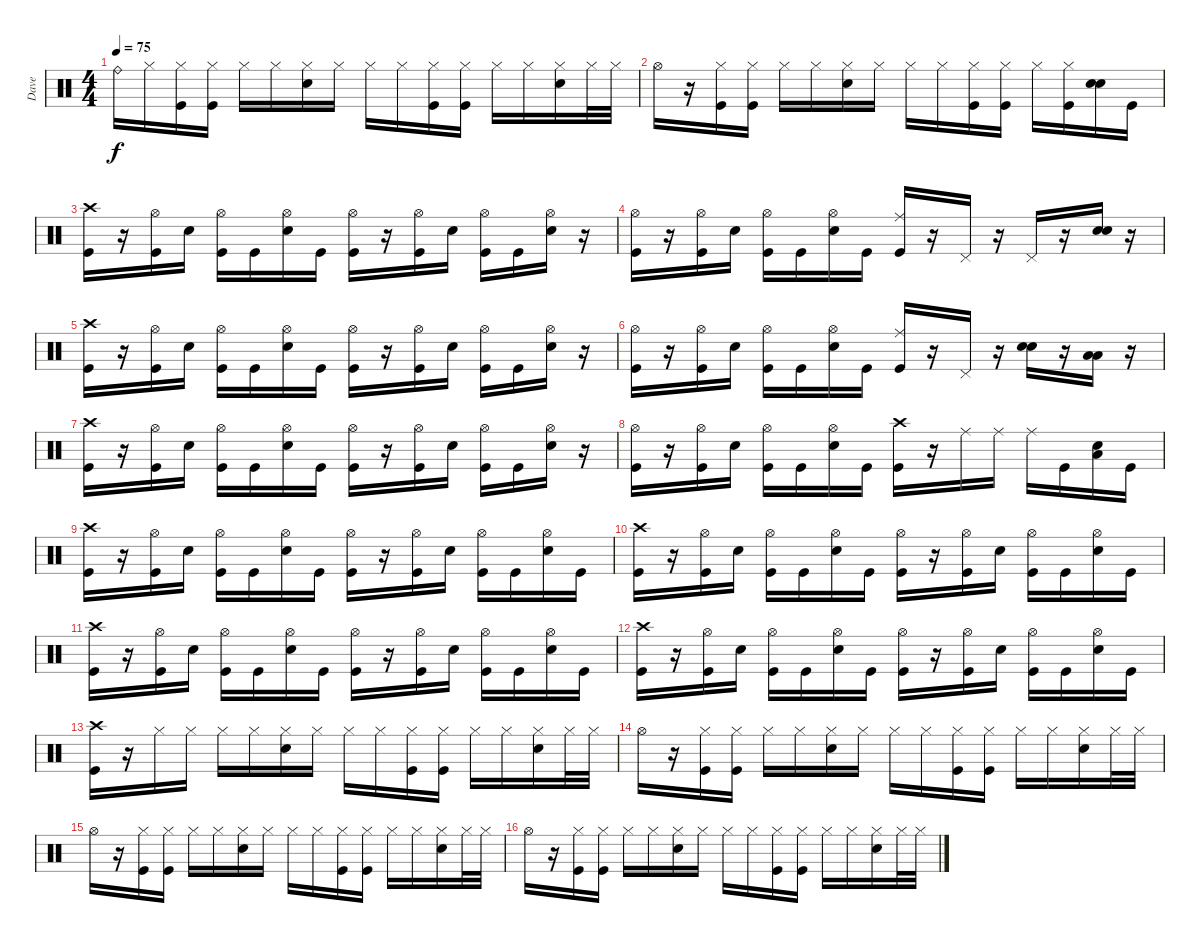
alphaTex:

\track ("Dave" "Dave") {instrument percussion}
\staff {score}
\articulation defaults
\ts (4 4)
\tempo 75
\clef neutral
\ks c "Ride (bell)".16{dy f} "Hi-Hat (closed)".16
("Hi-Hat (closed)" "Kick (hit)").16 ("Hi-Hat (closed)" "Kick (hit)").16 "Hi-Hat (closed)".16 "Hi-Hat (closed)".16 ("Hi-Hat (closed)" "Snare (hit) 2").16 "Hi-Hat (closed)".16 "Hi-Hat (closed)".16 "Hi-Hat (closed)".16 ("Hi-Hat (closed)" "Kick (hit)").16 ("Hi-Hat (closed)" "Kick (hit)").16 "Hi-Hat (closed)".16 "Hi-Hat (closed)".16 ("Hi-Hat (closed)" "Snare (hit) 2").16 "Hi-Hat (closed)".32 "Hi-Hat (closed)".32 |
"Hi-Hat (open)".16 r.16 ("Hi-Hat (closed)" "Kick (hit)").16 ("Hi-Hat (closed)" "Kick (hit)").16 "Hi-Hat (closed)".16 "Hi-Hat (closed)".16 ("Hi-Hat (closed)" "Snare (hit) 2").16 "Hi-Hat (closed)".16 "Hi-Hat (closed)".16 "Hi-Hat (closed)".16 ("Hi-Hat (closed)" "Kick (hit)").16 ("Hi-Hat (closed)" "Kick (hit)").16 "Hi-Hat (closed)".16 ("Hi-Hat (closed)" "Kick (hit)").16 ("Snare (hit) 2" "Snare (hit) 2").16 "Kick (hit)".16 |
("Crash high (hit)" "Kick (hit)").16 r.16 ("Hi-Hat (open)" "Kick (hit)").16 "Snare (hit) 2".16 ("Hi-Hat (open)" "Kick (hit)").16 "Kick (hit)".16 ("Hi-Hat (open)" "Snare (hit) 2").16 "Kick (hit)".16 ("Hi-Hat (open)" "Kick (hit)").16 r.16 ("Hi-Hat (open)" "Kick (hit)").16 "Snare (hit) 2".16 ("Hi-Hat (open)" "Kick (hit)").16 "Kick (hit)".16 ("Hi-Hat (open)" "Snare (hit) 2").16 r.16 |
("Hi-Hat (open)" "Kick (hit)").16 r.16 ("Hi-Hat (open)" "Kick (hit)").16 "Snare (hit) 2".16 ("Hi-Hat (open)" "Kick (hit)").16 "Kick (hit)".16 ("Hi-Hat (open)" "Snare (hit) 2").16 "Kick (hit)".16 ("Ride (middle)" "Kick (hit)").16 r.16 "Pedal Hi-Hat (hit)".16 r.16 "Pedal Hi-Hat (hit)".16 r.16 ("Snare (hit) 2" "Snare (hit) 2").16 r.16 |
("Crash high (hit)" "Kick (hit)").16 r.16 ("Hi-Hat (open)" "Kick (hit)").16 "Snare (hit) 2".16 ("Hi-Hat (open)" "Kick (hit)").16 "Kick (hit)".16 ("Hi-Hat (open)" "Snare (hit) 2").16 "Kick (hit)".16 ("Hi-Hat (open)" "Kick (hit)").16 r.16 ("Hi-Hat (open)" "Kick (hit)").16 "Snare (hit) 2".16 ("Hi-Hat (open)" "Kick (hit)").16 "Kick (hit)".16 ("Hi-Hat (open)" "Snare (hit) 2").16 r.16 |
("Hi-Hat (open)" "Kick (hit)").16 r.16 ("Hi-Hat (open)" "Kick (hit)").16 "Snare (hit) 2".16 ("Hi-Hat (open)" "Kick (hit)").16 "Kick (hit)".16 ("Hi-Hat (open)" "Snare (hit) 2").16 "Kick (hit)".16 ("Ride (middle)" "Kick (hit)").16 r.16 "Pedal Hi-Hat (hit)".16 r.16 ("Snare (hit) 2" "Snare (hit) 2").16 r.16 ("Low Floor Tom (hit)" "Low Floor Tom (hit)").16 r.16 |
("Crash high (hit)" "Kick (hit)").16 r.16 ("Hi-Hat (open)" "Kick (hit)").16 "Snare (hit) 2".16 ("Hi-Hat (open)" "Kick (hit)").16 "Kick (hit)".16 ("Hi-Hat (open)" "Snare (hit) 2").16 "Kick (hit)".16 ("Hi-Hat (open)" "Kick (hit)").16 r.16 ("Hi-Hat (open)" "Kick (hit)").16 "Snare (hit) 2".16 ("Hi-Hat (open)" "Kick (hit)").16 "Kick (hit)".16 ("Hi-Hat (open)" "Snare (hit) 2").16 r.16 |
("Hi-Hat (open)" "Kick (hit)").16 r.16 ("Hi-Hat (open)" "Kick (hit)").16 "Snare (hit) 2".16 ("Hi-Hat (open)" "Kick (hit)").16 "Kick (hit)".16 ("Hi-Hat (open)" "Snare (hit) 2").16 "Kick (hit)".16 ("Crash high (hit)" "Kick (hit)").16 r.16 "Ride (middle)".16 "Ride (middle)".16 "Ride (middle)".16 "Kick (hit)".16 ("Snare (hit) 2" "Low Floor Tom (hit)").16 "Kick (hit)".16 |
("Crash high (hit)" "Kick (hit)").16 r.16 ("Hi-Hat (open)" "Kick (hit)").16 "Snare (hit) 2".16 ("Hi-Hat (open)" "Kick (hit)").16 "Kick (hit)".16 ("Hi-Hat (open)" "Snare (hit) 2").16 "Kick (hit)".16 ("Hi-Hat (open)" "Kick (hit)").16 r.16 ("Hi-Hat (open)" "Kick (hit)").16 "Snare (hit) 2".16 ("Hi-Hat (open)" "Kick (hit)").16 "Kick (hit)".16 ("Hi-Hat (open)" "Snare (hit) 2").16 "Kick (hit)".16 |
("Crash high (hit)" "Kick (hit)").16 r.16 ("Hi-Hat (open)" "Kick (hit)").16 "Snare (hit) 2".16 ("Hi-Hat (open)" "Kick (hit)").16 "Kick (hit)".16 ("Hi-Hat (open)" "Snare (hit) 2").16 "Kick (hit)".16 ("Hi-Hat (open)" "Kick (hit)").16 r.16 ("Hi-Hat (open)" "Kick (hit)").16 "Snare (hit) 2".16 ("Hi-Hat (open)" "Kick (hit)").16 "Kick (hit)".16 ("Hi-Hat (open)" "Snare (hit) 2").16 "Kick (hit)".16 |
("Crash high (hit)" "Kick (hit)").16 r.16 ("Hi-Hat (open)" "Kick (hit)").16 "Snare (hit) 2".16 ("Hi-Hat (open)" "Kick (hit)").16 "Kick (hit)".16 ("Hi-Hat (open)" "Snare (hit) 2").16 "Kick (hit)".16 ("Hi-Hat (open)" "Kick (hit)").16 r.16 ("Hi-Hat (open)" "Kick (hit)").16 "Snare (hit) 2".16 ("Hi-Hat (open)" "Kick (hit)").16 "Kick (hit)".16 ("Hi-Hat (open)" "Snare (hit) 2").16 "Kick (hit)".16 |
("Crash high (hit)" "Kick (hit)").16 r.16 ("Hi-Hat (open)" "Kick (hit)").16 "Snare (hit) 2".16 ("Hi-Hat (open)" "Kick (hit)").16 "Kick (hit)".16 ("Hi-Hat (open)" "Snare (hit) 2").16 "Kick (hit)".16 ("Hi-Hat (open)" "Kick (hit)").16 r.16 ("Hi-Hat (open)" "Kick (hit)").16 "Snare (hit) 2".16 ("Hi-Hat (open)" "Kick (hit)").16 "Kick (hit)".16 ("Hi-Hat (open)" "Snare (hit) 2").16 "Kick (hit)".16 |
("Crash high (hit)" "Kick (hit)").16 r.16 "Hi-Hat (closed)".16 "Hi-Hat (closed)".16 "Hi-Hat (closed)".16 "Hi-Hat (closed)".16 ("Hi-Hat (closed)" "Snare (hit) 2").16 "Hi-Hat (closed)".16 "Hi-Hat (closed)".16 "Hi-Hat (closed)".16 ("Hi-Hat (closed)" "Kick (hit)").16 ("Hi-Hat (closed)" "Kick (hit)").16 "Hi-Hat (closed)".16 "Hi-Hat (closed)".16 ("Hi-Hat (closed)" "Snare (hit) 2").16 "Hi-Hat (closed)".32 "Hi-Hat (closed)".32 |
"Hi-Hat (open)".16 r.16 ("Hi-Hat (closed)" "Kick (hit)").16 ("Hi-Hat (closed)" "Kick (hit)").16 "Hi-Hat (closed)".16 "Hi-Hat (closed)".16 ("Hi-Hat (closed)" "Snare (hit) 2").16 "Hi-Hat (closed)".16 "Hi-Hat (closed)".16 "Hi-Hat (closed)".16 ("Hi-Hat (closed)" "Kick (hit)").16 ("Hi-Hat (closed)" "Kick (hit)").16 "Hi-Hat (closed)".16 "Hi-Hat (closed)".16 ("Hi-Hat (closed)" "Snare (hit) 2").16 "Hi-Hat (closed)".32 "Hi-Hat (closed)".32 |
"Hi-Hat (open)".16 r.16 ("Hi-Hat (closed)" "Kick (hit)").16 ("Hi-Hat (closed)" "Kick (hit)").16 "Hi-Hat (closed)".16 "Hi-Hat (closed)".16 ("Hi-Hat (closed)" "Snare (hit) 2").16 "Hi-Hat (closed)".16 "Hi-Hat (closed)".16 "Hi-Hat (closed)".16 ("Hi-Hat (closed)" "Kick (hit)").16 ("Hi-Hat (closed)" "Kick (hit)").16 "Hi-Hat (closed)".16 "Hi-Hat (closed)".16 ("Hi-Hat (closed)" "Snare (hit) 2").16 "Hi-Hat (closed)".32 "Hi-Hat (closed)".32 |
"Hi-Hat (open)".16 r.16 ("Hi-Hat (closed)" "Kick (hit)").16 ("Hi-Hat (closed)" "Kick (hit)").16 "Hi-Hat (closed)".16 "Hi-Hat (closed)".16 ("Hi-Hat (closed)" "Snare (hit) 2").16 "Hi-Hat (closed)".16 "Hi-Hat (closed)".16 "Hi-Hat (closed)".16 ("Hi-Hat (closed)" "Kick (hit)").16 ("Hi-Hat (closed)" "Kick (hit)").16 "Hi-Hat (closed)".16 "Hi-Hat (closed)".16 ("Hi-Hat (closed)" "Snare (hit) 2").16 "Hi-Hat (closed)".32 "Hi-Hat (closed)".32
